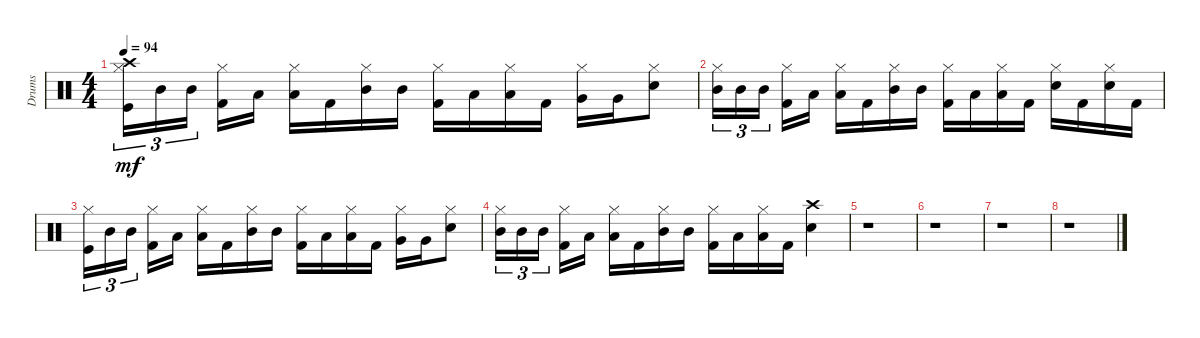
\track ("Drums" "Drums") {instrument percussion}
\staff {score}
\articulation defaults
\ts (4 4)
\tempo 94
\clef neutral
\ks aminor
("Crash high (hit)" "Kick (hit)" "Hi-Hat (closed)").16{tu (3 2) dy mf} "Mid Tom (hit)".16{tu (3 2)} "Mid Tom (hit)".16{tu (3 2)} ("Hi-Hat (closed)" "Kick (hit) 2").16 "Low Tom (hit)".16 ("Low Tom (hit)" "Hi-Hat (closed)").16 "Kick (hit) 2".16 ("Hi-Hat (closed)" "Mid Tom (hit)").16 "Mid Tom (hit)".16 ("Hi-Hat (closed)" "Kick (hit) 2").16 "Low Tom (hit)".16 ("Low Tom (hit)" "Hi-Hat (closed)").16 "Kick (hit) 2".16 ("Hi-Hat (closed)" "Very Low Tom (hit)").16 "Very Low Tom (hit)".16 ("Snare (hit) 2" "Hi-Hat (closed)").8 |
("Hi-Hat (closed)" "Mid Tom (hit)").16{tu (3 2)} "Mid Tom (hit)".16{tu (3 2)} "Mid Tom (hit)".16{tu (3 2)} ("Kick (hit) 2" "Hi-Hat (closed)").16 "Low Tom (hit)".16 ("Low Tom (hit)" "Hi-Hat (closed)").16 "Kick (hit) 2".16 ("Mid Tom (hit)" "Hi-Hat (closed)").16 "Mid Tom (hit)".16 ("Kick (hit) 2" "Hi-Hat (closed)").16 "Low Tom (hit)".16 ("Hi-Hat (closed)" "Low Tom (hit)").16 "Kick (hit) 2".16 ("Snare (hit) 2" "Hi-Hat (closed)").16 "Kick (hit) 2".16 ("Hi-Hat (closed)" "Snare (hit) 2").16 "Kick (hit) 2".16 |
("Kick (hit)" "Hi-Hat (closed)").16{tu (3 2)} "Mid Tom (hit)".16{tu (3 2)} "Mid Tom (hit)".16{tu (3 2)} ("Hi-Hat (closed)" "Kick (hit) 2").16 "Low Tom (hit)".16 ("Hi-Hat (closed)" "Low Tom (hit)").16 "Kick (hit) 2".16 ("Hi-Hat (closed)" "Mid Tom (hit)").16 "Mid Tom (hit)".16 ("Kick (hit) 2" "Hi-Hat (closed)").16 "Low Tom (hit)".16 ("Low Tom (hit)" "Hi-Hat (closed)").16 "Kick (hit) 2".16 ("Hi-Hat (closed)" "Very Low Tom (hit)").16 "Very Low Tom (hit)".16 ("Hi-Hat (closed)" "Snare (hit) 2").8 |
("Mid Tom (hit)" "Hi-Hat (closed)").16{tu (3 2)} "Mid Tom (hit)".16{tu (3 2)} "Mid Tom (hit)".16{tu (3 2)} ("Kick (hit) 2" "Hi-Hat (closed)").16 "Low Tom (hit)".16 ("Low Tom (hit)" "Hi-Hat (closed)").16 "Kick (hit) 2".16 ("Mid Tom (hit)" "Hi-Hat (closed)").16 "Mid Tom (hit)".16 ("Kick (hit) 2" "Hi-Hat (closed)").16 "Low Tom (hit)".16 ("Hi-Hat (closed)" "Low Tom (hit)").16 "Kick (hit) 2".16 ("Snare (hit) 2" "Crash high (hit)").4 |
r.1 |
r.1 |
r.1 |
r.1
